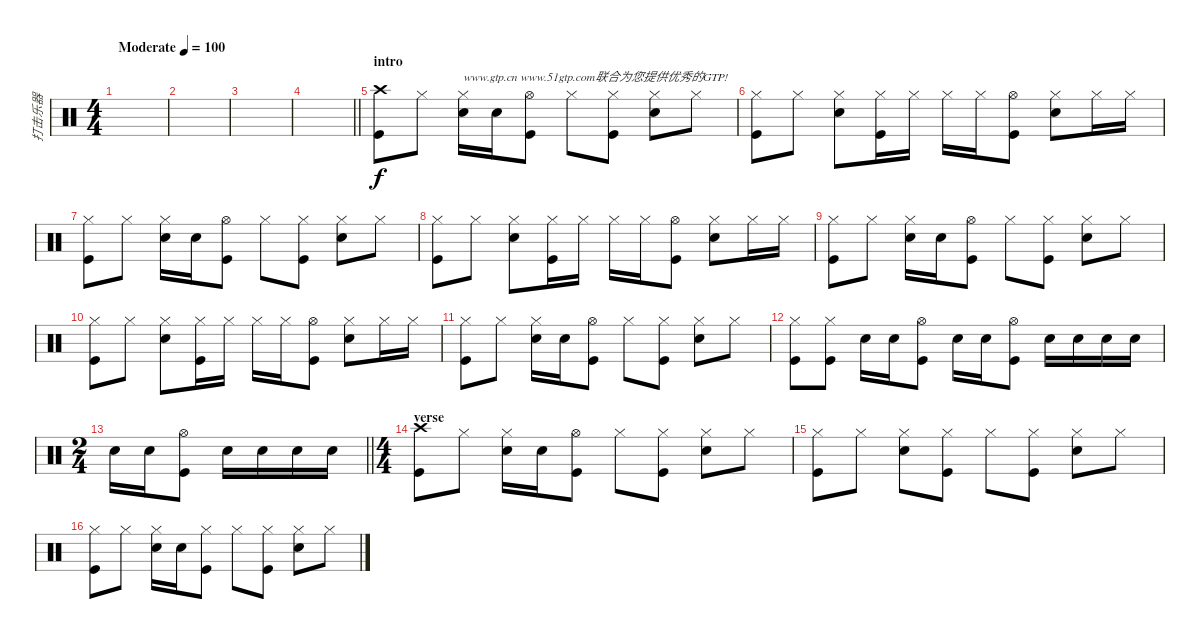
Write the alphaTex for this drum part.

\track ("打击乐器" "打击乐器") {instrument percussion}
\staff {score}
\articulation defaults
\ts (4 4)
\tempo (100 "Moderate")
\clef neutral
\ks c
|
|
|
\barLineRight lightlight
|
\section ("" "intro")
("Crash high (hit)" "Kick (hit)").8 "Hi-Hat (closed)".8 ("Hi-Hat (closed)" "Electric Snare (hit)").16{txt "www.gtp.cn www.51gtp.com联合为您提供优秀的GTP!"} "Electric Snare (hit)".16 ("Hi-Hat (open)" "Kick (hit)").8 "Hi-Hat (closed)".8 ("Hi-Hat (closed)" "Kick (hit)").8 ("Hi-Hat (closed)" "Electric Snare (hit)").8 "Hi-Hat (closed)".8 |
("Hi-Hat (closed)" "Kick (hit)").8 "Hi-Hat (closed)".8 ("Hi-Hat (closed)" "Electric Snare (hit)").8 ("Hi-Hat (closed)" "Kick (hit)").16 "Hi-Hat (closed)".16 "Hi-Hat (closed)".16 "Hi-Hat (closed)".16 ("Hi-Hat (open)" "Kick (hit)").8 ("Hi-Hat (closed)" "Electric Snare (hit)").8 "Hi-Hat (closed)".16 "Hi-Hat (closed)".16 |
("Hi-Hat (closed)" "Kick (hit)").8 "Hi-Hat (closed)".8 ("Hi-Hat (closed)" "Electric Snare (hit)").16 "Electric Snare (hit)".16 ("Hi-Hat (open)" "Kick (hit)").8 "Hi-Hat (closed)".8 ("Hi-Hat (closed)" "Kick (hit)").8 ("Hi-Hat (closed)" "Electric Snare (hit)").8 "Hi-Hat (closed)".8 |
("Hi-Hat (closed)" "Kick (hit)").8 "Hi-Hat (closed)".8 ("Hi-Hat (closed)" "Electric Snare (hit)").8 ("Hi-Hat (closed)" "Kick (hit)").16 "Hi-Hat (closed)".16 "Hi-Hat (closed)".16 "Hi-Hat (closed)".16 ("Hi-Hat (open)" "Kick (hit)").8 ("Hi-Hat (closed)" "Electric Snare (hit)").8 "Hi-Hat (closed)".16 "Hi-Hat (closed)".16 |
("Hi-Hat (closed)" "Kick (hit)").8 "Hi-Hat (closed)".8 ("Hi-Hat (closed)" "Electric Snare (hit)").16 "Electric Snare (hit)".16 ("Hi-Hat (open)" "Kick (hit)").8 "Hi-Hat (closed)".8 ("Hi-Hat (closed)" "Kick (hit)").8 ("Hi-Hat (closed)" "Electric Snare (hit)").8 "Hi-Hat (closed)".8 |
("Hi-Hat (closed)" "Kick (hit)").8 "Hi-Hat (closed)".8 ("Hi-Hat (closed)" "Electric Snare (hit)").8 ("Hi-Hat (closed)" "Kick (hit)").16 "Hi-Hat (closed)".16 "Hi-Hat (closed)".16 "Hi-Hat (closed)".16 ("Hi-Hat (open)" "Kick (hit)").8 ("Hi-Hat (closed)" "Electric Snare (hit)").8 "Hi-Hat (closed)".16 "Hi-Hat (closed)".16 |
("Hi-Hat (closed)" "Kick (hit)").8 "Hi-Hat (closed)".8 ("Hi-Hat (closed)" "Electric Snare (hit)").16 "Electric Snare (hit)".16 ("Hi-Hat (open)" "Kick (hit)").8 "Hi-Hat (closed)".8 ("Hi-Hat (closed)" "Kick (hit)").8 ("Hi-Hat (closed)" "Electric Snare (hit)").8 "Hi-Hat (closed)".8 |
("Hi-Hat (closed)" "Kick (hit)").8 ("Kick (hit)" "Hi-Hat (closed)").8 "Electric Snare (hit)".16 "Electric Snare (hit)".16 ("Hi-Hat (open)" "Kick (hit)").8 "Electric Snare (hit)".16 "Electric Snare (hit)".16 ("Hi-Hat (open)" "Kick (hit)").8 "Electric Snare (hit)".16 "Electric Snare (hit)".16 "Electric Snare (hit)".16 "Electric Snare (hit)".16 |
\ts (2 4)
\barLineRight lightlight "Electric Snare (hit)".16 "Electric Snare (hit)".16
("Hi-Hat (open)" "Kick (hit)").8 "Electric Snare (hit)".16 "Electric Snare (hit)".16 "Electric Snare (hit)".16 "Electric Snare (hit)".16 |
\ts (4 4)
\section ("" "verse")
("Crash high (hit)" "Kick (hit)").8 "Hi-Hat (closed)".8 ("Hi-Hat (closed)" "Electric Snare (hit)").16 "Electric Snare (hit)".16 ("Hi-Hat (open)" "Kick (hit)").8 "Hi-Hat (closed)".8 ("Hi-Hat (closed)" "Kick (hit)").8 ("Hi-Hat (closed)" "Electric Snare (hit)").8 "Hi-Hat (closed)".8 |
("Hi-Hat (closed)" "Kick (hit)").8 "Hi-Hat (closed)".8 ("Hi-Hat (closed)" "Electric Snare (hit)").8 ("Hi-Hat (closed)" "Kick (hit)").8 "Hi-Hat (closed)".8 ("Hi-Hat (closed)" "Kick (hit)").8 ("Hi-Hat (closed)" "Electric Snare (hit)").8 "Hi-Hat (closed)".8 |
("Hi-Hat (closed)" "Kick (hit)").8 "Hi-Hat (closed)".8 ("Hi-Hat (closed)" "Electric Snare (hit)").16 "Electric Snare (hit)".16 ("Hi-Hat (closed)" "Kick (hit)").8 "Hi-Hat (closed)".8 ("Hi-Hat (closed)" "Kick (hit)").8 ("Hi-Hat (closed)" "Electric Snare (hit)").8 "Hi-Hat (closed)".8
